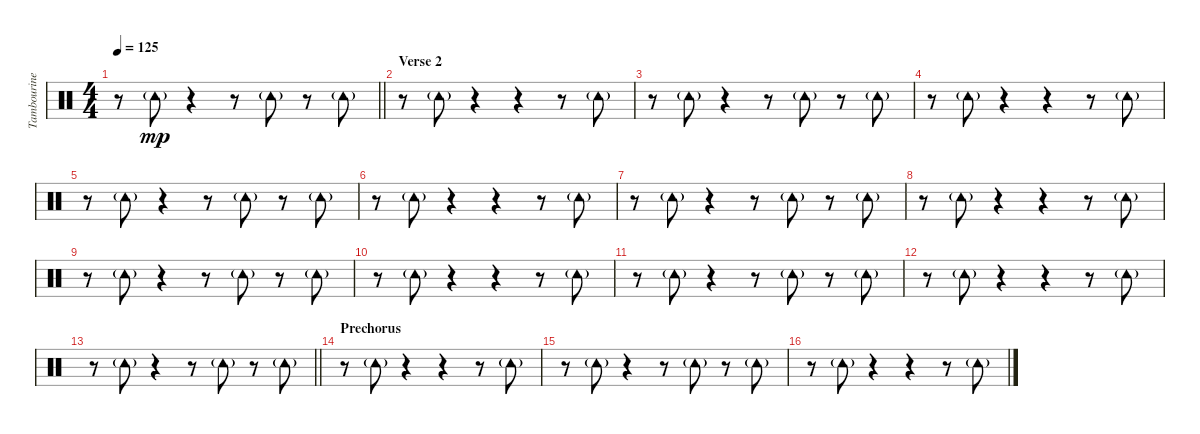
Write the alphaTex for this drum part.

\track ("Tambourine" "Tambourine") {instrument percussion}
\staff {score}
\articulation defaults
\ts (4 4)
\tempo 125
\clef neutral
\barLineRight lightlight
\ks c
r.8{dy mp} "Tambourine (hit)"{g}.8 r.4 r.8 "Tambourine (hit)"{g}.8 r.8 "Tambourine (hit)"{g}.8 |
\section ("" "Verse 2")
r.8 "Tambourine (hit)"{g}.8 r.4 r.4 r.8 "Tambourine (hit)"{g}.8 |
r.8 "Tambourine (hit)"{g}.8 r.4 r.8 "Tambourine (hit)"{g}.8 r.8 "Tambourine (hit)"{g}.8 |
r.8 "Tambourine (hit)"{g}.8 r.4 r.4 r.8 "Tambourine (hit)"{g}.8 |
r.8 "Tambourine (hit)"{g}.8 r.4 r.8 "Tambourine (hit)"{g}.8 r.8 "Tambourine (hit)"{g}.8 |
r.8 "Tambourine (hit)"{g}.8 r.4 r.4 r.8 "Tambourine (hit)"{g}.8 |
r.8 "Tambourine (hit)"{g}.8 r.4 r.8 "Tambourine (hit)"{g}.8 r.8 "Tambourine (hit)"{g}.8 |
r.8 "Tambourine (hit)"{g}.8 r.4 r.4 r.8 "Tambourine (hit)"{g}.8 |
r.8 "Tambourine (hit)"{g}.8 r.4 r.8 "Tambourine (hit)"{g}.8 r.8 "Tambourine (hit)"{g}.8 |
r.8 "Tambourine (hit)"{g}.8 r.4 r.4 r.8 "Tambourine (hit)"{g}.8 |
r.8 "Tambourine (hit)"{g}.8 r.4 r.8 "Tambourine (hit)"{g}.8 r.8 "Tambourine (hit)"{g}.8 |
r.8 "Tambourine (hit)"{g}.8 r.4 r.4 r.8 "Tambourine (hit)"{g}.8 |
\barLineRight lightlight
r.8 "Tambourine (hit)"{g}.8 r.4 r.8 "Tambourine (hit)"{g}.8 r.8 "Tambourine (hit)"{g}.8 |
\section ("" "Prechorus")
r.8 "Tambourine (hit)"{g}.8 r.4 r.4 r.8 "Tambourine (hit)"{g}.8 |
r.8 "Tambourine (hit)"{g}.8 r.4 r.8 "Tambourine (hit)"{g}.8 r.8 "Tambourine (hit)"{g}.8 |
r.8 "Tambourine (hit)"{g}.8 r.4 r.4 r.8 "Tambourine (hit)"{g}.8
